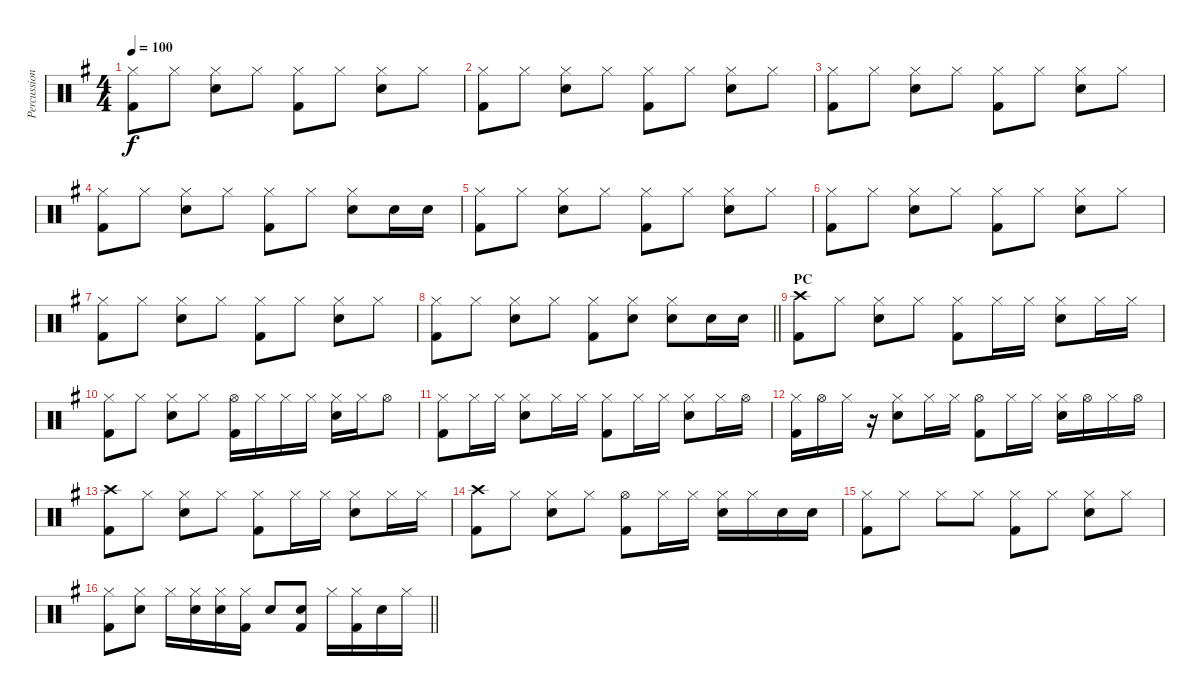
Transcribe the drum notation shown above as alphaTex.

\track ("Percussion" "Percussion") {instrument percussion}
\staff {score}
\articulation defaults
\ts (4 4)
\tempo 100
\clef neutral
\ks g
("Hi-Hat (closed)" "Kick (hit) 2").8{dy f} "Hi-Hat (closed)".8 ("Hi-Hat (closed)" "Electric Snare (hit)").8 "Hi-Hat (closed)".8 ("Hi-Hat (closed)" "Kick (hit) 2").8 "Hi-Hat (closed)".8 ("Hi-Hat (closed)" "Electric Snare (hit)").8 "Hi-Hat (closed)".8 |
("Hi-Hat (closed)" "Kick (hit) 2").8 "Hi-Hat (closed)".8 ("Hi-Hat (closed)" "Electric Snare (hit)").8 "Hi-Hat (closed)".8 ("Hi-Hat (closed)" "Kick (hit) 2").8 "Hi-Hat (closed)".8 ("Hi-Hat (closed)" "Electric Snare (hit)").8 "Hi-Hat (closed)".8 |
("Hi-Hat (closed)" "Kick (hit) 2").8 "Hi-Hat (closed)".8 ("Hi-Hat (closed)" "Electric Snare (hit)").8 "Hi-Hat (closed)".8 ("Hi-Hat (closed)" "Kick (hit) 2").8 "Hi-Hat (closed)".8 ("Hi-Hat (closed)" "Electric Snare (hit)").8 "Hi-Hat (closed)".8 |
("Hi-Hat (closed)" "Kick (hit) 2").8 "Hi-Hat (closed)".8 ("Hi-Hat (closed)" "Electric Snare (hit)").8 "Hi-Hat (closed)".8 ("Hi-Hat (closed)" "Kick (hit) 2").8 "Hi-Hat (closed)".8 ("Hi-Hat (closed)" "Electric Snare (hit)").8 "Electric Snare (hit)".16 "Electric Snare (hit)".16 |
("Hi-Hat (closed)" "Kick (hit) 2").8 "Hi-Hat (closed)".8 ("Hi-Hat (closed)" "Electric Snare (hit)").8 "Hi-Hat (closed)".8 ("Hi-Hat (closed)" "Kick (hit) 2").8 "Hi-Hat (closed)".8 ("Hi-Hat (closed)" "Electric Snare (hit)").8 "Hi-Hat (closed)".8 |
("Hi-Hat (closed)" "Kick (hit) 2").8 "Hi-Hat (closed)".8 ("Hi-Hat (closed)" "Electric Snare (hit)").8 "Hi-Hat (closed)".8 ("Hi-Hat (closed)" "Kick (hit) 2").8 "Hi-Hat (closed)".8 ("Hi-Hat (closed)" "Electric Snare (hit)").8 "Hi-Hat (closed)".8 |
("Hi-Hat (closed)" "Kick (hit) 2").8 "Hi-Hat (closed)".8 ("Hi-Hat (closed)" "Electric Snare (hit)").8 "Hi-Hat (closed)".8 ("Hi-Hat (closed)" "Kick (hit) 2").8 "Hi-Hat (closed)".8 ("Hi-Hat (closed)" "Electric Snare (hit)").8 "Hi-Hat (closed)".8 |
\barLineRight lightlight
("Hi-Hat (closed)" "Kick (hit) 2").8 "Hi-Hat (closed)".8 ("Hi-Hat (closed)" "Electric Snare (hit)").8 "Hi-Hat (closed)".8 ("Hi-Hat (closed)" "Kick (hit) 2").8 ("Hi-Hat (closed)" "Electric Snare (hit)").8 ("Hi-Hat (closed)" "Electric Snare (hit)").8 "Electric Snare (hit)".16 "Electric Snare (hit)".16 |
\section ("" "PC")
("Crash high (hit)" "Kick (hit) 2").8 "Hi-Hat (closed)".8 ("Hi-Hat (closed)" "Electric Snare (hit)").8 "Hi-Hat (closed)".8 ("Hi-Hat (closed)" "Kick (hit) 2").8 "Hi-Hat (closed)".16 "Hi-Hat (closed)".16 ("Hi-Hat (closed)" "Electric Snare (hit)").8 "Hi-Hat (closed)".16 "Hi-Hat (closed)".16 |
("Hi-Hat (closed)" "Kick (hit) 2").8 "Hi-Hat (closed)".8 ("Hi-Hat (closed)" "Electric Snare (hit)").8 "Hi-Hat (closed)".8 ("Hi-Hat (open)" "Kick (hit) 2").16 "Hi-Hat (closed)".16 "Hi-Hat (closed)".16 "Hi-Hat (closed)".16 ("Hi-Hat (closed)" "Electric Snare (hit)").16 "Hi-Hat (closed)".16 "Hi-Hat (open)".8 |
("Hi-Hat (closed)" "Kick (hit) 2").8 "Hi-Hat (closed)".16 "Hi-Hat (closed)".16 ("Hi-Hat (closed)" "Electric Snare (hit)").8 "Hi-Hat (closed)".16 "Hi-Hat (closed)".16 ("Hi-Hat (closed)" "Kick (hit) 2").8 "Hi-Hat (closed)".16 "Hi-Hat (closed)".16 ("Hi-Hat (closed)" "Electric Snare (hit)").8 "Hi-Hat (closed)".16 "Hi-Hat (open)".16 |
("Hi-Hat (closed)" "Kick (hit) 2").16 "Hi-Hat (open)".16 "Hi-Hat (closed)".16 r.16 ("Hi-Hat (closed)" "Electric Snare (hit)").8 "Hi-Hat (closed)".16 "Hi-Hat (closed)".16 ("Hi-Hat (open)" "Kick (hit) 2").8 "Hi-Hat (closed)".16 "Hi-Hat (closed)".16 ("Hi-Hat (closed)" "Electric Snare (hit)").16 "Hi-Hat (open)".16 "Hi-Hat (closed)".16 "Hi-Hat (open)".16 |
("Crash high (hit)" "Kick (hit) 2").8 "Hi-Hat (closed)".8 ("Hi-Hat (closed)" "Electric Snare (hit)").8 "Hi-Hat (closed)".8 ("Hi-Hat (closed)" "Kick (hit) 2").8 "Hi-Hat (closed)".16 "Hi-Hat (closed)".16 ("Hi-Hat (closed)" "Electric Snare (hit)").8 "Hi-Hat (closed)".16 "Hi-Hat (closed)".16 |
("Crash high (hit)" "Kick (hit) 2").8 "Hi-Hat (closed)".8 ("Hi-Hat (closed)" "Electric Snare (hit)").8 "Hi-Hat (closed)".8 ("Hi-Hat (open)" "Kick (hit) 2").8 "Hi-Hat (closed)".16 "Hi-Hat (closed)".16 ("Hi-Hat (closed)" "Electric Snare (hit)").16 "Hi-Hat (closed)".16 "Electric Snare (hit)".16 "Electric Snare (hit)".16 |
("Hi-Hat (closed)" "Kick (hit) 2").8 "Hi-Hat (closed)".8 "Hi-Hat (closed)".8 "Hi-Hat (closed)".8 ("Hi-Hat (closed)" "Kick (hit) 2").8 "Hi-Hat (closed)".8 ("Hi-Hat (closed)" "Electric Snare (hit)").8 "Hi-Hat (closed)".8 |
\barLineRight lightlight
("Hi-Hat (closed)" "Kick (hit) 2").8 ("Hi-Hat (closed)" "Electric Snare (hit)").8 "Hi-Hat (closed)".16 ("Hi-Hat (closed)" "Electric Snare (hit)").16 ("Hi-Hat (closed)" "Electric Snare (hit)").16 ("Hi-Hat (closed)" "Kick (hit) 2").16 "Electric Snare (hit)".8 ("Electric Snare (hit)" "Kick (hit) 2").8 "Hi-Hat (closed)".16 ("Hi-Hat (closed)" "Kick (hit) 2").16 "Electric Snare (hit)".16 "Hi-Hat (closed)".16
